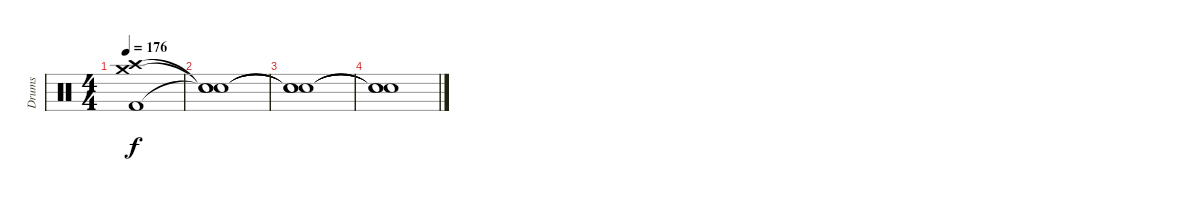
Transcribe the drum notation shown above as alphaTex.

\track ("Drums" "Drums") {instrument percussion}
\staff {score}
\articulation defaults
\ts (4 4)
\tempo 176
\clef neutral
\ks c
("Crash medium (hit)" "Crash high (hit)" "Kick (hit) 2").1{dy f} |
("Snare (hit)"{t} "Snare (hit)"{t} "Snare (hit)"{t}).1 |
("Snare (hit)"{t} "Snare (hit)"{t} "Snare (hit)"{t}).1 |
("Snare (hit)"{t} "Snare (hit)"{t} "Snare (hit)"{t}).1
